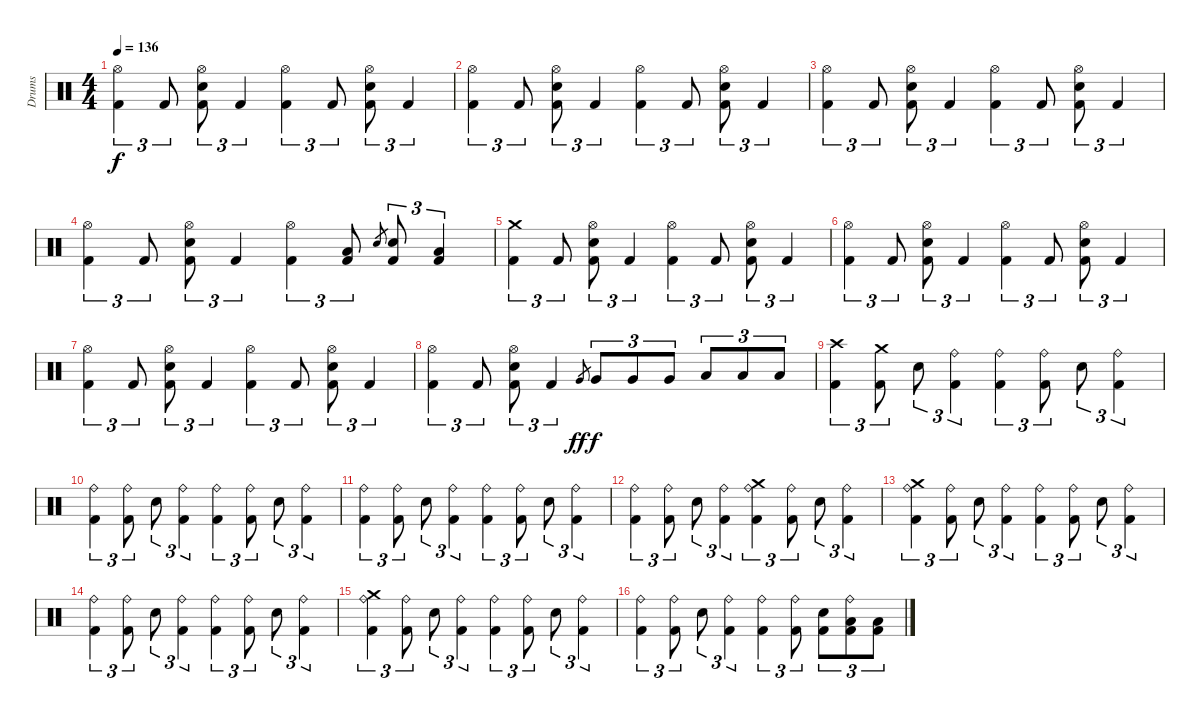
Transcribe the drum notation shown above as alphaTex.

\track ("Drums" "Drums") {instrument percussion}
\staff {score}
\articulation defaults
\ts (4 4)
\tempo 136
\clef neutral
\ks c
("Hi-Hat (open)" "Kick (hit) 2").4{tu (3 2) dy f} "Kick (hit) 2".8{tu (3 2)} ("Hi-Hat (open)" "Electric Snare (hit)" "Kick (hit) 2").8{tu (3 2)} "Kick (hit) 2".4{tu (3 2)} ("Hi-Hat (open)" "Kick (hit) 2").4{tu (3 2)} "Kick (hit) 2".8{tu (3 2)} ("Hi-Hat (open)" "Electric Snare (hit)" "Kick (hit) 2").8{tu (3 2)} "Kick (hit) 2".4{tu (3 2)} |
("Hi-Hat (open)" "Kick (hit) 2").4{tu (3 2)} "Kick (hit) 2".8{tu (3 2)} ("Hi-Hat (open)" "Electric Snare (hit)" "Kick (hit) 2").8{tu (3 2)} "Kick (hit) 2".4{tu (3 2)} ("Hi-Hat (open)" "Kick (hit) 2").4{tu (3 2)} "Kick (hit) 2".8{tu (3 2)} ("Hi-Hat (open)" "Electric Snare (hit)" "Kick (hit) 2").8{tu (3 2)} "Kick (hit) 2".4{tu (3 2)} |
("Hi-Hat (open)" "Kick (hit) 2").4{tu (3 2)} "Kick (hit) 2".8{tu (3 2)} ("Hi-Hat (open)" "Electric Snare (hit)" "Kick (hit) 2").8{tu (3 2)} "Kick (hit) 2".4{tu (3 2)} ("Hi-Hat (open)" "Kick (hit) 2").4{tu (3 2)} "Kick (hit) 2".8{tu (3 2)} ("Hi-Hat (open)" "Electric Snare (hit)" "Kick (hit) 2").8{tu (3 2)} "Kick (hit) 2".4{tu (3 2)} |
("Hi-Hat (open)" "Kick (hit) 2").4{tu (3 2)} "Kick (hit) 2".8{tu (3 2)} ("Hi-Hat (open)" "Electric Snare (hit)" "Kick (hit) 2").8{tu (3 2)} "Kick (hit) 2".4{tu (3 2)} ("Hi-Hat (open)" "Kick (hit) 2").4{tu (3 2)} ("Low Floor Tom (hit)" "Kick (hit) 2").8{tu (3 2)} "Electric Snare (hit)".8{gr} ("Electric Snare (hit)" "Kick (hit) 2").8{tu (3 2)} ("Low Floor Tom (hit)" "Kick (hit) 2").4{tu (3 2)} |
("Crash medium (hit)" "Kick (hit) 2").4{tu (3 2)} "Kick (hit) 2".8{tu (3 2)} ("Hi-Hat (open)" "Electric Snare (hit)" "Kick (hit) 2").8{tu (3 2)} "Kick (hit) 2".4{tu (3 2)} ("Hi-Hat (open)" "Kick (hit) 2").4{tu (3 2)} "Kick (hit) 2".8{tu (3 2)} ("Hi-Hat (open)" "Electric Snare (hit)" "Kick (hit) 2").8{tu (3 2)} "Kick (hit) 2".4{tu (3 2)} |
("Hi-Hat (open)" "Kick (hit) 2").4{tu (3 2)} "Kick (hit) 2".8{tu (3 2)} ("Hi-Hat (open)" "Electric Snare (hit)" "Kick (hit) 2").8{tu (3 2)} "Kick (hit) 2".4{tu (3 2)} ("Hi-Hat (open)" "Kick (hit) 2").4{tu (3 2)} "Kick (hit) 2".8{tu (3 2)} ("Hi-Hat (open)" "Electric Snare (hit)" "Kick (hit) 2").8{tu (3 2)} "Kick (hit) 2".4{tu (3 2)} |
("Hi-Hat (open)" "Kick (hit) 2").4{tu (3 2)} "Kick (hit) 2".8{tu (3 2)} ("Hi-Hat (open)" "Electric Snare (hit)" "Kick (hit) 2").8{tu (3 2)} "Kick (hit) 2".4{tu (3 2)} ("Hi-Hat (open)" "Kick (hit) 2").4{tu (3 2)} "Kick (hit) 2".8{tu (3 2)} ("Hi-Hat (open)" "Electric Snare (hit)" "Kick (hit) 2").8{tu (3 2)} "Kick (hit) 2".4{tu (3 2)} |
("Hi-Hat (open)" "Kick (hit) 2").4{tu (3 2)} "Kick (hit) 2".8{tu (3 2)} ("Hi-Hat (open)" "Electric Snare (hit)" "Kick (hit) 2").8{tu (3 2)} "Kick (hit) 2".4{tu (3 2)} "Very Low Tom (hit)".8{gr dy ff} "Very Low Tom (hit)".8{tu (3 2) dy f} "Very Low Tom (hit)".8{tu (3 2)} "Very Low Tom (hit)".8{tu (3 2)} "Low Floor Tom (hit)".8{tu (3 2)} "Low Floor Tom (hit)".8{tu (3 2)} "Low Floor Tom (hit)".8{tu (3 2)} |
("Crash high (hit)" "Kick (hit) 2").4{tu (3 2)} ("Crash medium (hit)" "Kick (hit) 2").8{tu (3 2)} "Electric Snare (hit)".8{tu (3 2)} ("Ride (bell)" "Kick (hit) 2").4{tu (3 2)} ("Ride (bell)" "Kick (hit) 2").4{tu (3 2)} ("Ride (bell)" "Kick (hit) 2").8{tu (3 2)} "Electric Snare (hit)".8{tu (3 2)} ("Ride (bell)" "Kick (hit) 2").4{tu (3 2)} |
("Ride (bell)" "Kick (hit) 2").4{tu (3 2)} ("Ride (bell)" "Kick (hit) 2").8{tu (3 2)} "Electric Snare (hit)".8{tu (3 2)} ("Ride (bell)" "Kick (hit) 2").4{tu (3 2)} ("Ride (bell)" "Kick (hit) 2").4{tu (3 2)} ("Ride (bell)" "Kick (hit) 2").8{tu (3 2)} "Electric Snare (hit)".8{tu (3 2)} ("Ride (bell)" "Kick (hit) 2").4{tu (3 2)} |
("Ride (bell)" "Kick (hit) 2").4{tu (3 2)} ("Ride (bell)" "Kick (hit) 2").8{tu (3 2)} "Electric Snare (hit)".8{tu (3 2)} ("Ride (bell)" "Kick (hit) 2").4{tu (3 2)} ("Ride (bell)" "Kick (hit) 2").4{tu (3 2)} ("Ride (bell)" "Kick (hit) 2").8{tu (3 2)} "Electric Snare (hit)".8{tu (3 2)} ("Ride (bell)" "Kick (hit) 2").4{tu (3 2)} |
("Ride (bell)" "Kick (hit) 2").4{tu (3 2)} ("Ride (bell)" "Kick (hit) 2").8{tu (3 2)} "Electric Snare (hit)".8{tu (3 2)} ("Ride (bell)" "Kick (hit) 2").4{tu (3 2)} ("Crash medium (hit)" "Ride (bell)" "Kick (hit) 2").4{tu (3 2)} ("Ride (bell)" "Kick (hit) 2").8{tu (3 2)} "Electric Snare (hit)".8{tu (3 2)} ("Ride (bell)" "Kick (hit) 2").4{tu (3 2)} |
("Crash medium (hit)" "Ride (bell)" "Kick (hit) 2").4{tu (3 2)} ("Ride (bell)" "Kick (hit) 2").8{tu (3 2)} "Electric Snare (hit)".8{tu (3 2)} ("Ride (bell)" "Kick (hit) 2").4{tu (3 2)} ("Ride (bell)" "Kick (hit) 2").4{tu (3 2)} ("Ride (bell)" "Kick (hit) 2").8{tu (3 2)} "Electric Snare (hit)".8{tu (3 2)} ("Ride (bell)" "Kick (hit) 2").4{tu (3 2)} |
("Ride (bell)" "Kick (hit) 2").4{tu (3 2)} ("Ride (bell)" "Kick (hit) 2").8{tu (3 2)} "Electric Snare (hit)".8{tu (3 2)} ("Ride (bell)" "Kick (hit) 2").4{tu (3 2)} ("Ride (bell)" "Kick (hit) 2").4{tu (3 2)} ("Ride (bell)" "Kick (hit) 2").8{tu (3 2)} "Electric Snare (hit)".8{tu (3 2)} ("Ride (bell)" "Kick (hit) 2").4{tu (3 2)} |
("Crash medium (hit)" "Ride (bell)" "Kick (hit) 2").4{tu (3 2)} ("Ride (bell)" "Kick (hit) 2").8{tu (3 2)} "Electric Snare (hit)".8{tu (3 2)} ("Ride (bell)" "Kick (hit) 2").4{tu (3 2)} ("Ride (bell)" "Kick (hit) 2").4{tu (3 2)} ("Ride (bell)" "Kick (hit) 2").8{tu (3 2)} "Electric Snare (hit)".8{tu (3 2)} ("Ride (bell)" "Kick (hit) 2").4{tu (3 2)} |
("Ride (bell)" "Kick (hit) 2").4{tu (3 2)} ("Ride (bell)" "Kick (hit) 2").8{tu (3 2)} "Electric Snare (hit)".8{tu (3 2)} ("Ride (bell)" "Kick (hit) 2").4{tu (3 2)} ("Ride (bell)" "Kick (hit) 2").4{tu (3 2)} ("Ride (bell)" "Kick (hit) 2").8{tu (3 2)} ("Electric Snare (hit)" "Kick (hit) 2").8{tu (3 2)} ("Ride (bell)" "Low Floor Tom (hit)" "Kick (hit) 2").8{tu (3 2)} ("Low Floor Tom (hit)" "Kick (hit) 2").8{tu (3 2)}
